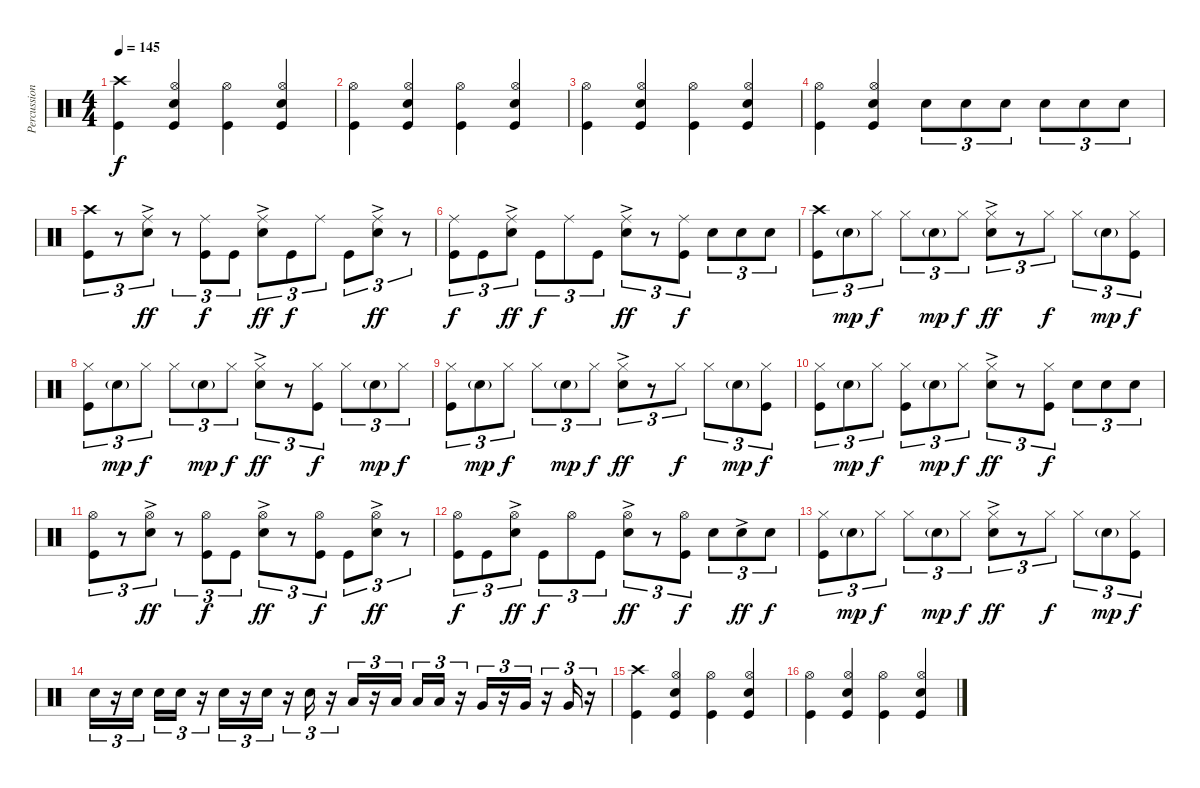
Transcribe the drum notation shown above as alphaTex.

\track ("Percussion" "Percussion") {instrument percussion}
\staff {score}
\articulation defaults
\ts (4 4)
\tempo 145
\clef neutral
\ks c
("Crash high (hit)" "Kick (hit)").4{dy f} ("Hi-Hat (open)" "Snare (hit) 2" "Kick (hit)").4 ("Hi-Hat (open)" "Kick (hit)").4 ("Hi-Hat (open)" "Snare (hit) 2" "Kick (hit)").4 |
("Hi-Hat (open)" "Kick (hit)").4 ("Hi-Hat (open)" "Snare (hit) 2" "Kick (hit)").4 ("Hi-Hat (open)" "Kick (hit)").4 ("Hi-Hat (open)" "Snare (hit) 2" "Kick (hit)").4 |
("Hi-Hat (open)" "Kick (hit)").4 ("Hi-Hat (open)" "Snare (hit) 2" "Kick (hit)").4 ("Hi-Hat (open)" "Kick (hit)").4 ("Hi-Hat (open)" "Snare (hit) 2" "Kick (hit)").4 |
("Hi-Hat (open)" "Kick (hit)").4 ("Hi-Hat (open)" "Snare (hit) 2" "Kick (hit)").4 "Electric Snare (hit)".8{tu (3 2)} "Electric Snare (hit)".8{tu (3 2)} "Electric Snare (hit)".8{tu (3 2)} "Electric Snare (hit)".8{tu (3 2)} "Electric Snare (hit)".8{tu (3 2)} "Electric Snare (hit)".8{tu (3 2)} |
("Crash high (hit)" "Kick (hit)").8{tu (3 2)} r.8{tu (3 2)} ("Ride (middle)" "Electric Snare (hit)"{ac}).8{tu (3 2) dy ff} r.8{tu (3 2)} ("Ride (middle)" "Kick (hit)").8{tu (3 2) dy f} "Kick (hit)".8{tu (3 2)} ("Ride (middle)" "Electric Snare (hit)"{ac}).8{tu (3 2) dy ff} "Kick (hit)".8{tu (3 2) dy f} "Ride (middle)".8{tu (3 2)} "Kick (hit)".8{tu (3 2)} ("Ride (middle)" "Electric Snare (hit)"{ac}).8{tu (3 2) dy ff} r.8{tu (3 2)} |
("Ride (middle)" "Kick (hit)").8{tu (3 2) dy f} "Kick (hit)".8{tu (3 2)} ("Ride (middle)" "Electric Snare (hit)"{ac}).8{tu (3 2) dy ff} "Kick (hit)".8{tu (3 2) dy f} "Ride (middle)".8{tu (3 2)} "Kick (hit)".8{tu (3 2)} ("Ride (middle)" "Electric Snare (hit)"{ac}).8{tu (3 2) dy ff} r.8{tu (3 2)} ("Ride (middle)" "Kick (hit)").8{tu (3 2) dy f} "Electric Snare (hit)".8{tu (3 2)} "Electric Snare (hit)".8{tu (3 2)} "Electric Snare (hit)".8{tu (3 2)} |
("Crash high (hit)" "Kick (hit)").8{tu (3 2)} "Electric Snare (hit)"{g}.8{tu (3 2) dy mp} "Hi-Hat (closed)".8{tu (3 2) dy f} "Hi-Hat (closed)".8{tu (3 2)} "Electric Snare (hit)"{g}.8{tu (3 2) dy mp} "Hi-Hat (closed)".8{tu (3 2) dy f} ("Hi-Hat (closed)" "Electric Snare (hit)"{ac}).8{tu (3 2) dy ff} r.8{tu (3 2)} "Hi-Hat (closed)".8{tu (3 2) dy f} "Hi-Hat (closed)".8{tu (3 2)} "Electric Snare (hit)"{g}.8{tu (3 2) dy mp} ("Hi-Hat (closed)" "Kick (hit)").8{tu (3 2) dy f} |
("Hi-Hat (closed)" "Kick (hit)").8{tu (3 2)} "Electric Snare (hit)"{g}.8{tu (3 2) dy mp} "Hi-Hat (closed)".8{tu (3 2) dy f} "Hi-Hat (closed)".8{tu (3 2)} "Electric Snare (hit)"{g}.8{tu (3 2) dy mp} "Hi-Hat (closed)".8{tu (3 2) dy f} ("Hi-Hat (closed)" "Electric Snare (hit)"{ac}).8{tu (3 2) dy ff} r.8{tu (3 2)} ("Hi-Hat (closed)" "Kick (hit)").8{tu (3 2) dy f} "Hi-Hat (closed)".8{tu (3 2)} "Electric Snare (hit)"{g}.8{tu (3 2) dy mp} "Hi-Hat (closed)".8{tu (3 2) dy f} |
("Hi-Hat (closed)" "Kick (hit)").8{tu (3 2)} "Electric Snare (hit)"{g}.8{tu (3 2) dy mp} "Hi-Hat (closed)".8{tu (3 2) dy f} "Hi-Hat (closed)".8{tu (3 2)} "Electric Snare (hit)"{g}.8{tu (3 2) dy mp} "Hi-Hat (closed)".8{tu (3 2) dy f} ("Hi-Hat (closed)" "Electric Snare (hit)"{ac}).8{tu (3 2) dy ff} r.8{tu (3 2)} "Hi-Hat (closed)".8{tu (3 2) dy f} "Hi-Hat (closed)".8{tu (3 2)} "Electric Snare (hit)"{g}.8{tu (3 2) dy mp} ("Hi-Hat (closed)" "Kick (hit)").8{tu (3 2) dy f} |
("Hi-Hat (closed)" "Kick (hit)").8{tu (3 2)} "Electric Snare (hit)"{g}.8{tu (3 2) dy mp} "Hi-Hat (closed)".8{tu (3 2) dy f} ("Hi-Hat (closed)" "Kick (hit)").8{tu (3 2)} "Electric Snare (hit)"{g}.8{tu (3 2) dy mp} "Hi-Hat (closed)".8{tu (3 2) dy f} ("Hi-Hat (closed)" "Electric Snare (hit)"{ac}).8{tu (3 2) dy ff} r.8{tu (3 2)} ("Hi-Hat (closed)" "Kick (hit)").8{tu (3 2) dy f} "Electric Snare (hit)".8{tu (3 2)} "Electric Snare (hit)".8{tu (3 2)} "Electric Snare (hit)".8{tu (3 2)} |
("Hi-Hat (open)" "Kick (hit)").8{tu (3 2)} r.8{tu (3 2)} ("Hi-Hat (open)" "Electric Snare (hit)"{ac}).8{tu (3 2) dy ff} r.8{tu (3 2)} ("Hi-Hat (open)" "Kick (hit)").8{tu (3 2) dy f} "Kick (hit)".8{tu (3 2)} ("Hi-Hat (open)" "Electric Snare (hit)"{ac}).8{tu (3 2) dy ff} r.8{tu (3 2)} ("Hi-Hat (open)" "Kick (hit)").8{tu (3 2) dy f} "Kick (hit)".8{tu (3 2)} ("Hi-Hat (open)" "Electric Snare (hit)"{ac}).8{tu (3 2) dy ff} r.8{tu (3 2)} |
("Hi-Hat (open)" "Kick (hit)").8{tu (3 2) dy f} "Kick (hit)".8{tu (3 2)} ("Hi-Hat (open)" "Electric Snare (hit)"{ac}).8{tu (3 2) dy ff} "Kick (hit)".8{tu (3 2) dy f} "Hi-Hat (open)".8{tu (3 2)} "Kick (hit)".8{tu (3 2)} ("Hi-Hat (open)" "Electric Snare (hit)"{ac}).8{tu (3 2) dy ff} r.8{tu (3 2)} ("Hi-Hat (open)" "Kick (hit)").8{tu (3 2) dy f} "Electric Snare (hit)".8{tu (3 2)} "Electric Snare (hit)"{ac}.8{tu (3 2) dy ff} "Electric Snare (hit)".8{tu (3 2) dy f} |
("Hi-Hat (closed)" "Kick (hit)").8{tu (3 2)} "Electric Snare (hit)"{g}.8{tu (3 2) dy mp} "Hi-Hat (closed)".8{tu (3 2) dy f} "Hi-Hat (closed)".8{tu (3 2)} "Electric Snare (hit)"{g}.8{tu (3 2) dy mp} "Hi-Hat (closed)".8{tu (3 2) dy f} ("Hi-Hat (closed)" "Electric Snare (hit)"{ac}).8{tu (3 2) dy ff} r.8{tu (3 2)} "Hi-Hat (closed)".8{tu (3 2) dy f} "Hi-Hat (closed)".8{tu (3 2)} "Electric Snare (hit)"{g}.8{tu (3 2) dy mp} ("Hi-Hat (closed)" "Kick (hit)").8{tu (3 2) dy f} |
"Electric Snare (hit)".16{tu (3 2)} r.16{tu (3 2)} "Electric Snare (hit)".16{tu (3 2) beam splitsecondary} "Electric Snare (hit)".16{tu (3 2)} "Electric Snare (hit)".16{tu (3 2)} r.16{tu (3 2)} "Electric Snare (hit)".16{tu (3 2)} r.16{tu (3 2)} "Electric Snare (hit)".16{tu (3 2)} r.16{tu (3 2)} "Electric Snare (hit)".16{tu (3 2)} r.16{tu (3 2)} "Low Tom (hit)".16{tu (3 2)} r.16{tu (3 2)} "Low Tom (hit)".16{tu (3 2) beam splitsecondary} "Low Tom (hit)".16{tu (3 2)} "Low Tom (hit)".16{tu (3 2)} r.16{tu (3 2)} "Very Low Tom (hit)".16{tu (3 2)} r.16{tu (3 2)} "Very Low Tom (hit)".16{tu (3 2)} r.16{tu (3 2)} "Very Low Tom (hit)".16{tu (3 2)} r.16{tu (3 2)} |
("Crash high (hit)" "Kick (hit)").4 ("Hi-Hat (open)" "Snare (hit) 2" "Kick (hit)").4 ("Hi-Hat (open)" "Kick (hit)").4 ("Hi-Hat (open)" "Snare (hit) 2" "Kick (hit)").4 |
("Hi-Hat (open)" "Kick (hit)").4 ("Hi-Hat (open)" "Snare (hit) 2" "Kick (hit)").4 ("Hi-Hat (open)" "Kick (hit)").4 ("Hi-Hat (open)" "Snare (hit) 2" "Kick (hit)").4
